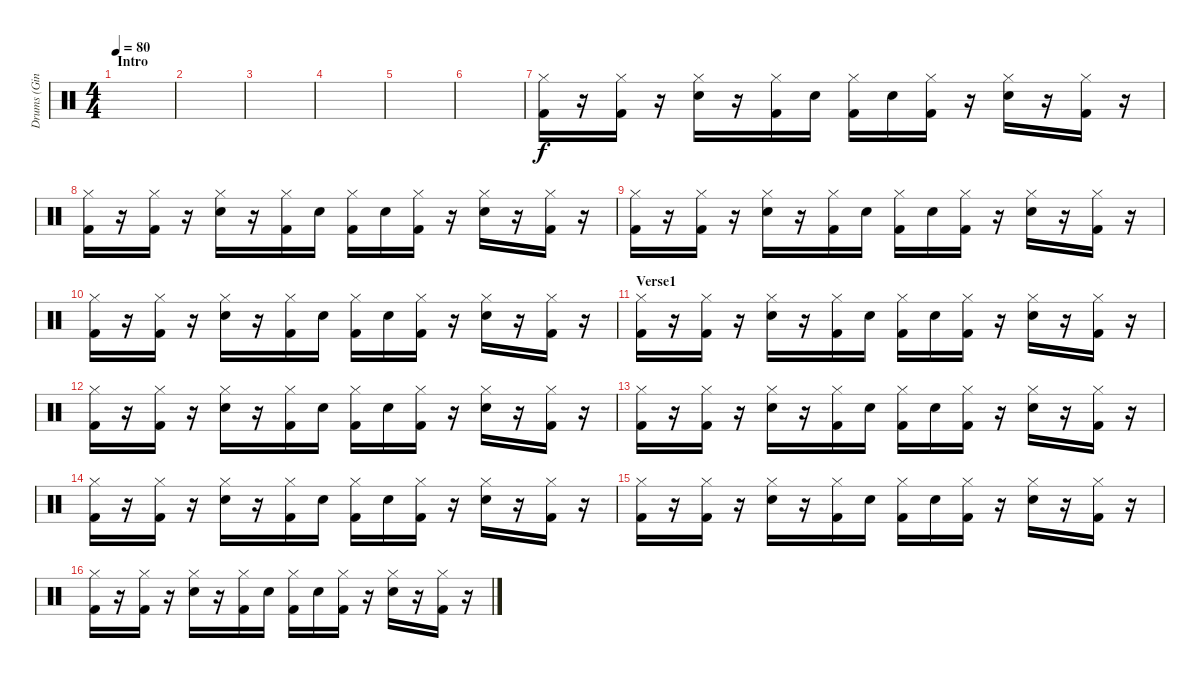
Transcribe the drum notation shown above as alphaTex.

\track ("Drums (Ginger Fish)" "Drums (Gin") {instrument percussion}
\staff {score}
\articulation defaults
\ts (4 4)
\section ("" "Intro")
\tempo 80
\clef neutral
\ks c
|
|
|
|
|
|
("Hi-Hat (closed)" "Kick (hit) 2").16 r.16 ("Hi-Hat (closed)" "Kick (hit) 2").16 r.16 ("Hi-Hat (closed)" "Electric Snare (hit)").16 r.16 ("Hi-Hat (closed)" "Kick (hit) 2").16 "Electric Snare (hit)".16 ("Hi-Hat (closed)" "Kick (hit) 2").16 "Electric Snare (hit)".16 ("Hi-Hat (closed)" "Kick (hit) 2").16 r.16 ("Hi-Hat (closed)" "Electric Snare (hit)").16 r.16 ("Hi-Hat (closed)" "Kick (hit) 2").16 r.16 |
("Hi-Hat (closed)" "Kick (hit) 2").16 r.16 ("Hi-Hat (closed)" "Kick (hit) 2").16 r.16 ("Hi-Hat (closed)" "Electric Snare (hit)").16 r.16 ("Hi-Hat (closed)" "Kick (hit) 2").16 "Electric Snare (hit)".16 ("Hi-Hat (closed)" "Kick (hit) 2").16 "Electric Snare (hit)".16 ("Hi-Hat (closed)" "Kick (hit) 2").16 r.16 ("Hi-Hat (closed)" "Electric Snare (hit)").16 r.16 ("Hi-Hat (closed)" "Kick (hit) 2").16 r.16 |
("Hi-Hat (closed)" "Kick (hit) 2").16 r.16 ("Hi-Hat (closed)" "Kick (hit) 2").16 r.16 ("Hi-Hat (closed)" "Electric Snare (hit)").16 r.16 ("Hi-Hat (closed)" "Kick (hit) 2").16 "Electric Snare (hit)".16 ("Hi-Hat (closed)" "Kick (hit) 2").16 "Electric Snare (hit)".16 ("Hi-Hat (closed)" "Kick (hit) 2").16 r.16 ("Hi-Hat (closed)" "Electric Snare (hit)").16 r.16 ("Hi-Hat (closed)" "Kick (hit) 2").16 r.16 |
("Hi-Hat (closed)" "Kick (hit) 2").16 r.16 ("Hi-Hat (closed)" "Kick (hit) 2").16 r.16 ("Hi-Hat (closed)" "Electric Snare (hit)").16 r.16 ("Hi-Hat (closed)" "Kick (hit) 2").16 "Electric Snare (hit)".16 ("Hi-Hat (closed)" "Kick (hit) 2").16 "Electric Snare (hit)".16 ("Hi-Hat (closed)" "Kick (hit) 2").16 r.16 ("Hi-Hat (closed)" "Electric Snare (hit)").16 r.16 ("Hi-Hat (closed)" "Kick (hit) 2").16 r.16 |
\section ("" "Verse1")
("Hi-Hat (closed)" "Kick (hit) 2").16 r.16 ("Hi-Hat (closed)" "Kick (hit) 2").16 r.16 ("Hi-Hat (closed)" "Electric Snare (hit)").16 r.16 ("Hi-Hat (closed)" "Kick (hit) 2").16 "Electric Snare (hit)".16 ("Hi-Hat (closed)" "Kick (hit) 2").16 "Electric Snare (hit)".16 ("Hi-Hat (closed)" "Kick (hit) 2").16 r.16 ("Hi-Hat (closed)" "Electric Snare (hit)").16 r.16 ("Hi-Hat (closed)" "Kick (hit) 2").16 r.16 |
("Hi-Hat (closed)" "Kick (hit) 2").16 r.16 ("Hi-Hat (closed)" "Kick (hit) 2").16 r.16 ("Hi-Hat (closed)" "Electric Snare (hit)").16 r.16 ("Hi-Hat (closed)" "Kick (hit) 2").16 "Electric Snare (hit)".16 ("Hi-Hat (closed)" "Kick (hit) 2").16 "Electric Snare (hit)".16 ("Hi-Hat (closed)" "Kick (hit) 2").16 r.16 ("Hi-Hat (closed)" "Electric Snare (hit)").16 r.16 ("Hi-Hat (closed)" "Kick (hit) 2").16 r.16 |
("Hi-Hat (closed)" "Kick (hit) 2").16 r.16 ("Hi-Hat (closed)" "Kick (hit) 2").16 r.16 ("Hi-Hat (closed)" "Electric Snare (hit)").16 r.16 ("Hi-Hat (closed)" "Kick (hit) 2").16 "Electric Snare (hit)".16 ("Hi-Hat (closed)" "Kick (hit) 2").16 "Electric Snare (hit)".16 ("Hi-Hat (closed)" "Kick (hit) 2").16 r.16 ("Hi-Hat (closed)" "Electric Snare (hit)").16 r.16 ("Hi-Hat (closed)" "Kick (hit) 2").16 r.16 |
("Hi-Hat (closed)" "Kick (hit) 2").16 r.16 ("Hi-Hat (closed)" "Kick (hit) 2").16 r.16 ("Hi-Hat (closed)" "Electric Snare (hit)").16 r.16 ("Hi-Hat (closed)" "Kick (hit) 2").16 "Electric Snare (hit)".16 ("Hi-Hat (closed)" "Kick (hit) 2").16 "Electric Snare (hit)".16 ("Hi-Hat (closed)" "Kick (hit) 2").16 r.16 ("Hi-Hat (closed)" "Electric Snare (hit)").16 r.16 ("Hi-Hat (closed)" "Kick (hit) 2").16 r.16 |
("Hi-Hat (closed)" "Kick (hit) 2").16 r.16 ("Hi-Hat (closed)" "Kick (hit) 2").16 r.16 ("Hi-Hat (closed)" "Electric Snare (hit)").16 r.16 ("Hi-Hat (closed)" "Kick (hit) 2").16 "Electric Snare (hit)".16 ("Hi-Hat (closed)" "Kick (hit) 2").16 "Electric Snare (hit)".16 ("Hi-Hat (closed)" "Kick (hit) 2").16 r.16 ("Hi-Hat (closed)" "Electric Snare (hit)").16 r.16 ("Hi-Hat (closed)" "Kick (hit) 2").16 r.16 |
("Hi-Hat (closed)" "Kick (hit) 2").16 r.16 ("Hi-Hat (closed)" "Kick (hit) 2").16 r.16 ("Hi-Hat (closed)" "Electric Snare (hit)").16 r.16 ("Hi-Hat (closed)" "Kick (hit) 2").16 "Electric Snare (hit)".16 ("Hi-Hat (closed)" "Kick (hit) 2").16 "Electric Snare (hit)".16 ("Hi-Hat (closed)" "Kick (hit) 2").16 r.16 ("Hi-Hat (closed)" "Electric Snare (hit)").16 r.16 ("Hi-Hat (closed)" "Kick (hit) 2").16 r.16
